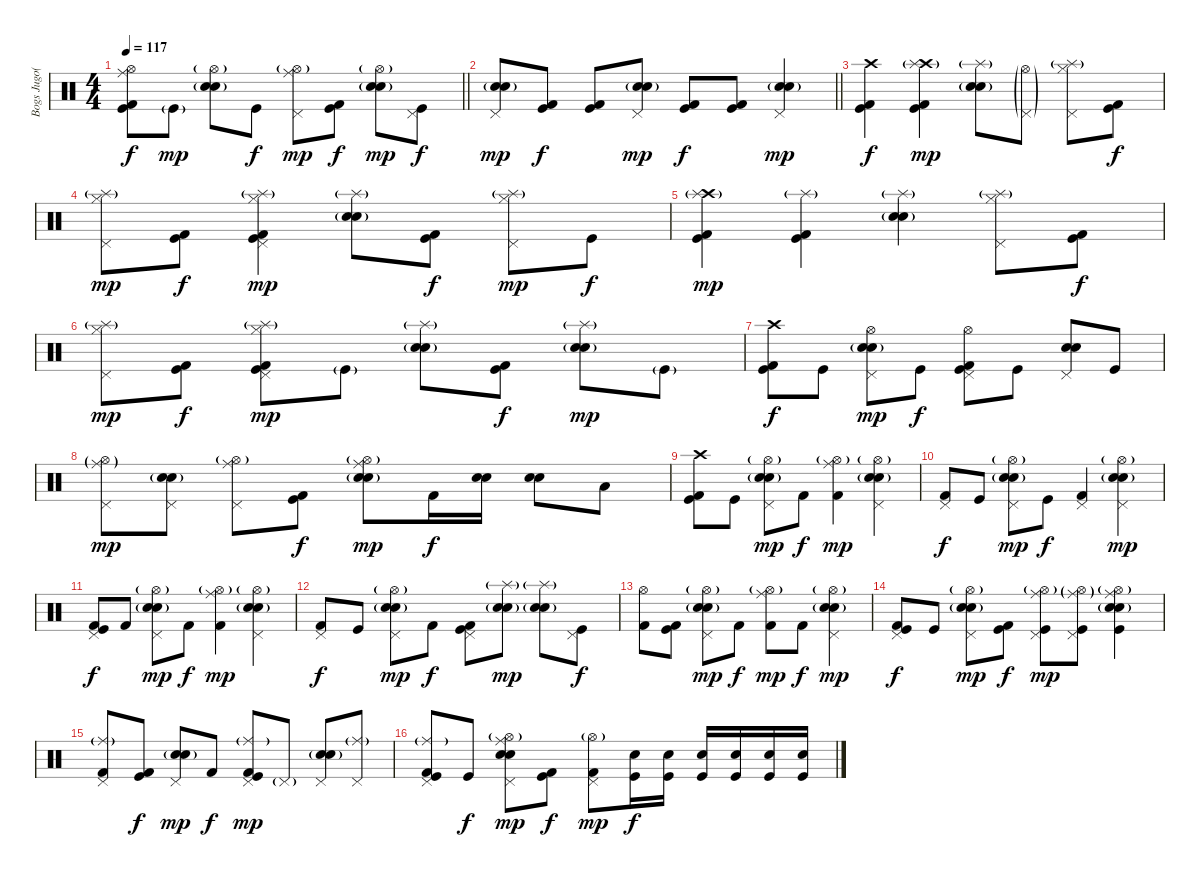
\track ("Bogs Jugo(Drums)" "Bogs Jugo(") {instrument percussion}
\staff {score}
\articulation defaults
\ts (4 4)
\tempo 117
\clef neutral
\barLineRight lightlight
\ks c
("Hi-Hat (open)" "Kick (hit) 2" "Kick (hit)" "Ride (middle)").8{dy f} "Kick (hit)"{g}.8{dy mp} ("Electric Snare (hit)" "Snare (hit) 2"{g} "Hi-Hat (open)"{g}).8 "Kick (hit)".8{dy f} ("Pedal Hi-Hat (hit)" "Ride (middle)" "Hi-Hat (open)"{g}).8{dy mp} ("Kick (hit) 2" "Kick (hit)").8{dy f} ("Electric Snare (hit)" "Snare (hit) 2"{g} "Hi-Hat (open)"{g}).8{dy mp} ("Pedal Hi-Hat (hit)" "Kick (hit)").8{dy f} |
\barLineRight lightlight
("Electric Snare (hit)" "Snare (hit) 2"{g} "Pedal Hi-Hat (hit)").8{dy mp} ("Kick (hit) 2" "Kick (hit)").8{dy f} ("Kick (hit) 2" "Kick (hit)").8 ("Electric Snare (hit)" "Snare (hit) 2"{g} "Pedal Hi-Hat (hit)").8{dy mp} ("Kick (hit) 2" "Kick (hit)").8{dy f} ("Kick (hit) 2" "Kick (hit)").8 ("Electric Snare (hit)" "Snare (hit) 2"{g} "Pedal Hi-Hat (hit)").4{dy mp} |
("Crash high (hit)" "Kick (hit) 2" "Kick (hit)").4{dy f} ("Crash high (hit)"{g} "Kick (hit) 2" "Kick (hit)" "Splash (hit)"{g}).4{dy mp} ("Electric Snare (hit)" "Snare (hit) 2"{g} "Splash (hit)"{g}).8 ("Pedal Hi-Hat (hit)"{g} "Hi-Hat (open)"{g}).8 ("Pedal Hi-Hat (hit)" "Hi-Hat (closed)" "Splash (hit)"{g}).8 ("Kick (hit) 2" "Kick (hit)").8{dy f} |
("Pedal Hi-Hat (hit)" "Hi-Hat (closed)" "Splash (hit)"{g}).8{dy mp} ("Kick (hit) 2" "Kick (hit)").8{dy f} ("Pedal Hi-Hat (hit)" "Hi-Hat (closed)" "Splash (hit)"{g} "Kick (hit) 2" "Kick (hit)").4{dy mp} ("Electric Snare (hit)" "Snare (hit) 2"{g} "Splash (hit)"{g}).8 ("Kick (hit) 2" "Kick (hit)").8{dy f} ("Pedal Hi-Hat (hit)" "Hi-Hat (closed)" "Splash (hit)"{g}).8{dy mp} "Kick (hit)".8{dy f} |
("Crash high (hit)"{g} "Kick (hit) 2" "Kick (hit)" "Splash (hit)"{g}).4{dy mp} ("Kick (hit) 2" "Kick (hit)" "Splash (hit)"{g}).4 ("Electric Snare (hit)" "Snare (hit) 2"{g} "Splash (hit)"{g}).4 ("Pedal Hi-Hat (hit)" "Hi-Hat (closed)" "Splash (hit)"{g}).8 ("Kick (hit) 2" "Kick (hit)").8{dy f} |
("Pedal Hi-Hat (hit)" "Hi-Hat (closed)" "Splash (hit)"{g}).8{dy mp} ("Kick (hit) 2" "Kick (hit)").8{dy f} ("Pedal Hi-Hat (hit)" "Hi-Hat (closed)" "Splash (hit)"{g} "Kick (hit) 2" "Kick (hit)").8{dy mp} "Kick (hit)"{g}.8 ("Electric Snare (hit)" "Snare (hit) 2"{g} "Splash (hit)"{g}).8 ("Kick (hit) 2" "Kick (hit)").8{dy f} ("Electric Snare (hit)" "Snare (hit) 2"{g} "Splash (hit)"{g}).8{dy mp} "Kick (hit)"{g}.8 |
("Crash high (hit)" "Kick (hit) 2" "Kick (hit)").8{dy f} "Kick (hit)".8 ("Pedal Hi-Hat (hit)" "Electric Snare (hit)" "Snare (hit) 2"{g} "Hi-Hat (open)").8{dy mp} "Kick (hit)".8{dy f} ("Pedal Hi-Hat (hit)" "Kick (hit) 2" "Kick (hit)" "Hi-Hat (open)").8 "Kick (hit)".8 ("Pedal Hi-Hat (hit)" "Electric Snare (hit)" "Snare (hit) 2").8 "Kick (hit)".8 |
("Pedal Hi-Hat (hit)" "Ride (middle)"{g} "Hi-Hat (open)"{g}).8{dy mp} ("Electric Snare (hit)" "Snare (hit) 2"{g} "Pedal Hi-Hat (hit)").8 ("Pedal Hi-Hat (hit)" "Ride (middle)" "Hi-Hat (open)"{g}).8 ("Kick (hit) 2" "Kick (hit)").8{dy f} ("Electric Snare (hit)" "Snare (hit) 2"{g} "Hi-Hat (open)"{g} "Ride (middle)").8{dy mp} "Kick (hit) 2".16{dy f} ("Electric Snare (hit)" "Snare (hit) 2").16 ("Electric Snare (hit)" "Snare (hit) 2").8 "Low Tom (hit)".8 |
("Crash high (hit)" "Kick (hit) 2" "Kick (hit)").8 "Kick (hit)".8 ("Electric Snare (hit)" "Snare (hit) 2"{g} "Pedal Hi-Hat (hit)" "Hi-Hat (open)"{g}).8{dy mp} "Kick (hit) 2".8{dy f} ("Kick (hit) 2" "Ride (middle)" "Hi-Hat (open)"{g}).4{dy mp} ("Electric Snare (hit)" "Snare (hit) 2"{g} "Pedal Hi-Hat (hit)" "Hi-Hat (open)"{g}).4 |
("Pedal Hi-Hat (hit)" "Kick (hit) 2").8{dy f} "Kick (hit)".8 ("Electric Snare (hit)" "Snare (hit) 2"{g} "Pedal Hi-Hat (hit)" "Hi-Hat (open)"{g}).8{dy mp} "Kick (hit)".8{dy f} ("Pedal Hi-Hat (hit)" "Kick (hit) 2").4 ("Electric Snare (hit)" "Snare (hit) 2"{g} "Pedal Hi-Hat (hit)" "Hi-Hat (open)"{g}).4{dy mp} |
("Pedal Hi-Hat (hit)" "Kick (hit) 2" "Kick (hit)").8{dy f} "Kick (hit) 2".8 ("Electric Snare (hit)" "Snare (hit) 2"{g} "Pedal Hi-Hat (hit)" "Hi-Hat (open)"{g}).8{dy mp} "Kick (hit) 2".8{dy f} ("Kick (hit) 2" "Ride (middle)" "Hi-Hat (open)"{g}).4{dy mp} ("Electric Snare (hit)" "Snare (hit) 2"{g} "Pedal Hi-Hat (hit)" "Hi-Hat (open)"{g}).4 |
("Pedal Hi-Hat (hit)" "Kick (hit) 2").8{dy f} "Kick (hit)".8 ("Electric Snare (hit)" "Snare (hit) 2"{g} "Pedal Hi-Hat (hit)" "Hi-Hat (open)"{g}).8{dy mp} "Kick (hit) 2".8{dy f} ("Pedal Hi-Hat (hit)" "Kick (hit) 2" "Kick (hit)").8 ("Electric Snare (hit)" "Snare (hit) 2"{g} "Splash (hit)"{g}).8{dy mp} ("Electric Snare (hit)" "Snare (hit) 2"{g} "Splash (hit)"{g}).8 ("Pedal Hi-Hat (hit)" "Kick (hit)").8{dy f} |
("Hi-Hat (open)" "Kick (hit) 2").8 ("Kick (hit) 2" "Kick (hit)").8 ("Electric Snare (hit)" "Snare (hit) 2"{g} "Pedal Hi-Hat (hit)" "Hi-Hat (open)"{g}).8{dy mp} "Kick (hit) 2".8{dy f} ("Kick (hit) 2" "Ride (middle)" "Hi-Hat (open)"{g}).8{dy mp} "Kick (hit) 2".8{dy f} ("Electric Snare (hit)" "Snare (hit) 2"{g} "Pedal Hi-Hat (hit)" "Hi-Hat (open)"{g}).4{dy mp} |
("Pedal Hi-Hat (hit)" "Kick (hit) 2" "Kick (hit)").8{dy f} "Kick (hit)".8 ("Electric Snare (hit)" "Snare (hit) 2"{g} "Pedal Hi-Hat (hit)" "Hi-Hat (open)"{g}).8{dy mp} ("Kick (hit)" "Kick (hit) 2").8{dy f} ("Pedal Hi-Hat (hit)" "Ride (middle)" "Kick (hit)" "Hi-Hat (open)"{g}).8{dy mp} ("Pedal Hi-Hat (hit)" "Ride (middle)"{g} "Kick (hit)" "Hi-Hat (open)"{g}).8 ("Electric Snare (hit)" "Snare (hit) 2"{g} "Kick (hit)" "Hi-Hat (open)"{g} "Ride (middle)").4 |
("Pedal Hi-Hat (hit)" "Kick (hit) 2" "Ride (middle)"{g}).8 ("Kick (hit) 2" "Kick (hit)").8{dy f} ("Electric Snare (hit)" "Snare (hit) 2"{g} "Pedal Hi-Hat (hit)").8{dy mp} "Kick (hit) 2".8{dy f} ("Kick (hit) 2" "Kick (hit)" "Pedal Hi-Hat (hit)" "Ride (middle)"{g}).8{dy mp} "Pedal Hi-Hat (hit)"{g}.8 ("Electric Snare (hit)" "Snare (hit) 2"{g} "Pedal Hi-Hat (hit)").8 ("Pedal Hi-Hat (hit)" "Ride (middle)"{g}).8 |
("Pedal Hi-Hat (hit)" "Kick (hit) 2" "Kick (hit)" "Ride (middle)"{g}).8 "Kick (hit)".8{dy f} ("Electric Snare (hit)" "Snare (hit) 2" "Pedal Hi-Hat (hit)" "Hi-Hat (open)"{g} "Ride (middle)").8{dy mp} ("Kick (hit) 2" "Kick (hit)").8{dy f} ("Pedal Hi-Hat (hit)" "Hi-Hat (open)"{g} "Kick (hit) 2").8{dy mp} ("Electric Snare (hit)" "Kick (hit)").16{dy f} ("Electric Snare (hit)" "Kick (hit)").16 ("Electric Snare (hit)" "Kick (hit)").16 ("Electric Snare (hit)" "Kick (hit)").16 ("Electric Snare (hit)" "Kick (hit)").16 ("Electric Snare (hit)" "Kick (hit)").16
